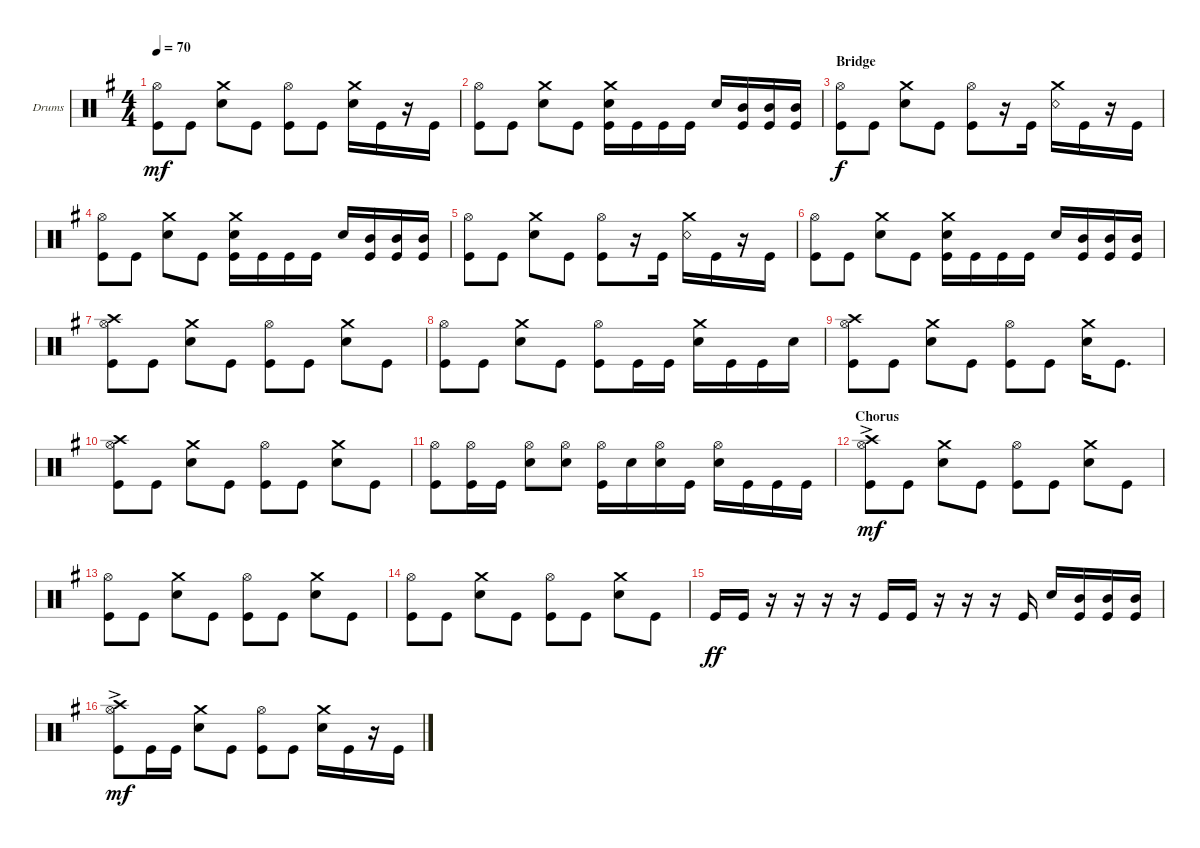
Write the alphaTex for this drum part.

\defaultSystemsLayout 4
\bracketExtendMode groupsimilarinstruments
\firstSystemTrackNameOrientation horizontal
\otherSystemsTrackNameOrientation horizontal
\track ("Drumkit" "Drums") {instrument percussion}
\staff {score}
\articulation defaults
\ts (4 4)
\tempo 70
\clef neutral
\ks eminor
("Kick (hit)" "Hi-Hat (open)").8{dy mf} "Kick (hit)".8 ("Snare (hit) 2" "Crash medium (hit)").8 "Kick (hit)".8 ("Kick (hit)" "Hi-Hat (open)").8 "Kick (hit)".8 ("Snare (hit) 2" "Crash medium (hit)").16 "Kick (hit)".16 r.16 "Kick (hit)".16 |
("Kick (hit)" "Hi-Hat (open)").8 "Kick (hit)".8 ("Snare (hit) 2" "Crash medium (hit)").8 "Kick (hit)".8 ("Kick (hit)" "Crash medium (hit)" "Snare (hit) 2").16 "Kick (hit)".16 "Kick (hit)".16 "Kick (hit)".16 "Snare (hit) 2".16 ("Kick (hit)" "Mid Tom (hit)").16 ("Kick (hit)" "Mid Tom (hit)").16 ("Kick (hit)" "Mid Tom (hit)").16 |
\section ("" "Bridge")
("Kick (hit)" "Hi-Hat (open)").8{dy f} "Kick (hit)".8 ("Snare (hit) 2" "Crash medium (hit)").8 "Kick (hit)".8 ("Kick (hit)" "Hi-Hat (open)").8 r.16 "Kick (hit)".16 ("Crash medium (hit)" "Snare (rim shot)").16 "Kick (hit)".16 r.16 "Kick (hit)".16 |
("Kick (hit)" "Hi-Hat (open)").8 "Kick (hit)".8 ("Snare (hit) 2" "Crash medium (hit)").8 "Kick (hit)".8 ("Kick (hit)" "Crash medium (hit)" "Snare (hit) 2").16 "Kick (hit)".16 "Kick (hit)".16 "Kick (hit)".16 "Snare (hit) 2".16 ("Kick (hit)" "Mid Tom (hit)").16 ("Kick (hit)" "Mid Tom (hit)").16 ("Kick (hit)" "Mid Tom (hit)").16 |
("Kick (hit)" "Hi-Hat (open)").8 "Kick (hit)".8 ("Snare (hit) 2" "Crash medium (hit)").8 "Kick (hit)".8 ("Kick (hit)" "Hi-Hat (open)").8 r.16 "Kick (hit)".16 ("Crash medium (hit)" "Snare (rim shot)").16 "Kick (hit)".16 r.16 "Kick (hit)".16 |
("Kick (hit)" "Hi-Hat (open)").8 "Kick (hit)".8 ("Snare (hit) 2" "Crash medium (hit)").8 "Kick (hit)".8 ("Kick (hit)" "Crash medium (hit)" "Snare (hit) 2").16 "Kick (hit)".16 "Kick (hit)".16 "Kick (hit)".16 "Snare (hit) 2".16 ("Kick (hit)" "Mid Tom (hit)").16 ("Kick (hit)" "Mid Tom (hit)").16 ("Kick (hit)" "Mid Tom (hit)").16 |
("Kick (hit)" "Hi-Hat (open)" "Crash high (hit)").8 "Kick (hit)".8 ("Snare (hit) 2" "Crash medium (hit)").8 "Kick (hit)".8 ("Kick (hit)" "Hi-Hat (open)").8 "Kick (hit)".8 ("Snare (hit) 2" "Crash medium (hit)").8 "Kick (hit)".8 |
("Kick (hit)" "Hi-Hat (open)").8 "Kick (hit)".8 ("Snare (hit) 2" "Crash medium (hit)").8 "Kick (hit)".8 ("Kick (hit)" "Hi-Hat (open)").8 "Kick (hit)".16 "Kick (hit)".16 ("Snare (hit) 2" "Crash medium (hit)").16 "Kick (hit)".16 "Kick (hit)".16 "Snare (hit) 2".16 |
("Kick (hit)" "Hi-Hat (open)" "Crash high (hit)").8 "Kick (hit)".8 ("Snare (hit) 2" "Crash medium (hit)").8 "Kick (hit)".8 ("Kick (hit)" "Hi-Hat (open)").8 "Kick (hit)".8 ("Snare (hit) 2" "Crash medium (hit)").16 "Kick (hit)".8{d} |
("Kick (hit)" "Hi-Hat (open)" "Crash high (hit)").8 "Kick (hit)".8 ("Snare (hit) 2" "Crash medium (hit)").8 "Kick (hit)".8 ("Kick (hit)" "Hi-Hat (open)").8 "Kick (hit)".8 ("Snare (hit) 2" "Crash medium (hit)").8 "Kick (hit)".8 |
("Kick (hit)" "Hi-Hat (open)").8 ("Kick (hit)" "Hi-Hat (open)").16 "Kick (hit)".16 ("Snare (hit) 2" "Hi-Hat (open)").8 ("Snare (hit) 2" "Hi-Hat (open)").8 ("Kick (hit)" "Hi-Hat (open)").16 "Snare (hit) 2".16 ("Snare (hit) 2" "Hi-Hat (open)").16 "Kick (hit)".16 ("Snare (hit) 2" "Hi-Hat (open)").16 "Kick (hit)".16 "Kick (hit)".16 "Kick (hit)".16 |
\section ("" "Chorus")
("Kick (hit)" "Hi-Hat (open)" "Crash high (hit)"{ac}).8{dy mf} "Kick (hit)".8 ("Snare (hit) 2" "Crash medium (hit)").8 "Kick (hit)".8 ("Kick (hit)" "Hi-Hat (open)").8 "Kick (hit)".8 ("Snare (hit) 2" "Crash medium (hit)").8 "Kick (hit)".8 |
("Kick (hit)" "Hi-Hat (open)").8 "Kick (hit)".8 ("Snare (hit) 2" "Crash medium (hit)").8 "Kick (hit)".8 ("Kick (hit)" "Hi-Hat (open)").8 "Kick (hit)".8 ("Snare (hit) 2" "Crash medium (hit)").8 "Kick (hit)".8 |
("Kick (hit)" "Hi-Hat (open)").8 "Kick (hit)".8 ("Snare (hit) 2" "Crash medium (hit)").8 "Kick (hit)".8 ("Kick (hit)" "Hi-Hat (open)").8 "Kick (hit)".8 ("Snare (hit) 2" "Crash medium (hit)").8 "Kick (hit)".8 |
"Kick (hit)".16{dy ff} "Kick (hit)".16 r.16 r.16 r.16 r.16 "Kick (hit)".16 "Kick (hit)".16 r.16 r.16 r.16 "Kick (hit)".16 "Snare (hit) 2".16 ("Kick (hit)" "Mid Tom (hit)").16 ("Kick (hit)" "Mid Tom (hit)").16 ("Kick (hit)" "Mid Tom (hit)").16 |
("Kick (hit)" "Hi-Hat (open)" "Crash high (hit)"{ac}).8{dy mf} "Kick (hit)".16 "Kick (hit)".16 ("Snare (hit) 2" "Crash medium (hit)").8 "Kick (hit)".8 ("Kick (hit)" "Hi-Hat (open)").8 "Kick (hit)".8 ("Snare (hit) 2" "Crash medium (hit)").16 "Kick (hit)".16 r.16 "Kick (hit)".16
